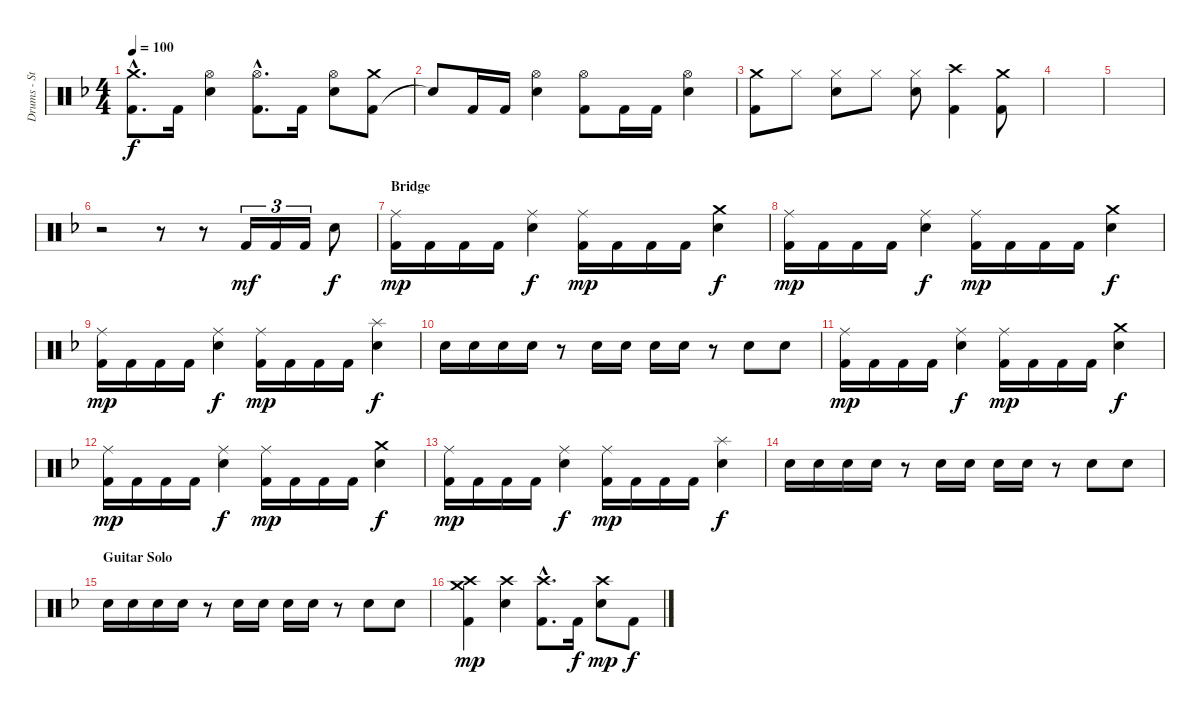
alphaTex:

\track ("Drums - Steve Wacholz" "Drums - St") {instrument percussion}
\staff {score}
\articulation defaults
\ts (4 4)
\tempo 100
\clef neutral
\ks f
("Kick (hit) 2"{hac} "Crash medium (hit)"{hac}).8{d dy f} "Kick (hit) 2".16 ("Electric Snare (hit)" "Hi-Hat (open)").4 ("Kick (hit) 2"{hac} "Hi-Hat (open)"{hac}).8{d} "Kick (hit) 2".16 ("Electric Snare (hit)" "Hi-Hat (open)").8 ("Kick (hit) 2" "Crash medium (hit)").8 |
"Snare (hit)"{t}.8 "Kick (hit) 2".16 "Kick (hit) 2".16 ("Electric Snare (hit)" "Hi-Hat (open)").4 ("Kick (hit) 2" "Hi-Hat (open)").8 "Kick (hit) 2".16 "Kick (hit) 2".16 ("Electric Snare (hit)" "Hi-Hat (open)").4 |
("Kick (hit) 2" "Crash medium (hit)").8 "Hi-Hat (closed)".8 ("Electric Snare (hit)" "Hi-Hat (closed)").8 "Hi-Hat (closed)".8 ("Electric Snare (hit)" "Hi-Hat (closed)").8 ("Kick (hit) 2" "Crash high (hit)").4 ("Kick (hit) 2" "Crash medium (hit)").8 |
|
|
r.2 r.8 r.8 "Kick (hit) 2".16{tu (3 2) dy mf} "Kick (hit) 2".16{tu (3 2)} "Kick (hit) 2".16{tu (3 2)} "Electric Snare (hit)".8{dy f} |
\section ("" "Bridge")
("Kick (hit) 2" "Ride (middle)").16{dy mp} "Kick (hit) 2".16 "Kick (hit) 2".16 "Kick (hit) 2".16 ("Electric Snare (hit)" "Ride (middle)").4{dy f} ("Kick (hit) 2" "Ride (middle)").16{dy mp} "Kick (hit) 2".16 "Kick (hit) 2".16 "Kick (hit) 2".16 ("Electric Snare (hit)" "Crash medium (hit)").4{dy f} |
("Kick (hit) 2" "Ride (middle)").16{dy mp} "Kick (hit) 2".16 "Kick (hit) 2".16 "Kick (hit) 2".16 ("Electric Snare (hit)" "Ride (middle)").4{dy f} ("Kick (hit) 2" "Ride (middle)").16{dy mp} "Kick (hit) 2".16 "Kick (hit) 2".16 "Kick (hit) 2".16 ("Electric Snare (hit)" "Crash medium (hit)").4{dy f} |
("Kick (hit) 2" "Ride (middle)").16{dy mp} "Kick (hit) 2".16 "Kick (hit) 2".16 "Kick (hit) 2".16 ("Electric Snare (hit)" "Ride (middle)").4{dy f} ("Kick (hit) 2" "Ride (middle)").16{dy mp} "Kick (hit) 2".16 "Kick (hit) 2".16 "Kick (hit) 2".16 ("Electric Snare (hit)" "Splash (hit)").4{dy f} |
"Electric Snare (hit)".16 "Electric Snare (hit)".16 "Electric Snare (hit)".16 "Electric Snare (hit)".16 r.8 "Electric Snare (hit)".16 "Electric Snare (hit)".16 "Electric Snare (hit)".16 "Electric Snare (hit)".16 r.8 "Electric Snare (hit)".8 "Electric Snare (hit)".8 |
("Kick (hit) 2" "Ride (middle)").16{dy mp} "Kick (hit) 2".16 "Kick (hit) 2".16 "Kick (hit) 2".16 ("Electric Snare (hit)" "Ride (middle)").4{dy f} ("Kick (hit) 2" "Ride (middle)").16{dy mp} "Kick (hit) 2".16 "Kick (hit) 2".16 "Kick (hit) 2".16 ("Electric Snare (hit)" "Crash medium (hit)").4{dy f} |
("Kick (hit) 2" "Ride (middle)").16{dy mp} "Kick (hit) 2".16 "Kick (hit) 2".16 "Kick (hit) 2".16 ("Electric Snare (hit)" "Ride (middle)").4{dy f} ("Kick (hit) 2" "Ride (middle)").16{dy mp} "Kick (hit) 2".16 "Kick (hit) 2".16 "Kick (hit) 2".16 ("Electric Snare (hit)" "Crash medium (hit)").4{dy f} |
("Kick (hit) 2" "Ride (middle)").16{dy mp} "Kick (hit) 2".16 "Kick (hit) 2".16 "Kick (hit) 2".16 ("Electric Snare (hit)" "Ride (middle)").4{dy f} ("Kick (hit) 2" "Ride (middle)").16{dy mp} "Kick (hit) 2".16 "Kick (hit) 2".16 "Kick (hit) 2".16 ("Electric Snare (hit)" "Splash (hit)").4{dy f} |
"Electric Snare (hit)".16 "Electric Snare (hit)".16 "Electric Snare (hit)".16 "Electric Snare (hit)".16 r.8 "Electric Snare (hit)".16 "Electric Snare (hit)".16 "Electric Snare (hit)".16 "Electric Snare (hit)".16 r.8 "Electric Snare (hit)".8 "Electric Snare (hit)".8 |
\section ("" "Guitar Solo")
"Electric Snare (hit)".16 "Electric Snare (hit)".16 "Electric Snare (hit)".16 "Electric Snare (hit)".16 r.8 "Electric Snare (hit)".16 "Electric Snare (hit)".16 "Electric Snare (hit)".16 "Electric Snare (hit)".16 r.8 "Electric Snare (hit)".8 "Electric Snare (hit)".8 |
("Kick (hit) 2" "Crash high (hit)" "Crash medium (hit)").4{dy mp} ("Electric Snare (hit)" "Crash high (hit)").4 ("Kick (hit) 2"{hac} "Crash high (hit)"{hac}).8{d} "Kick (hit) 2".16{dy f} ("Electric Snare (hit)" "Crash high (hit)").8{dy mp} "Kick (hit) 2".8{dy f}
